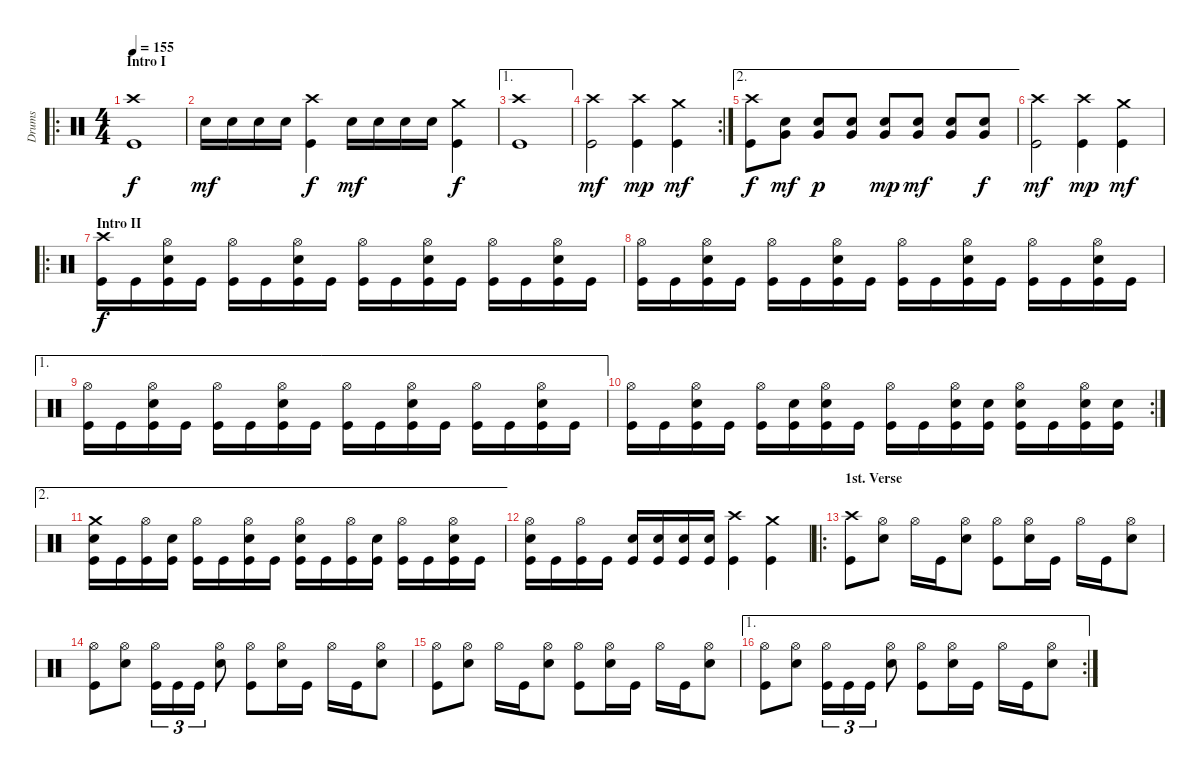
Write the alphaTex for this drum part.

\track ("Drums" "Drums") {instrument percussion}
\staff {score}
\articulation defaults
\ro
\ts (4 4)
\section ("" "Intro I")
\tempo 155
\clef neutral
\ks c
("Crash high (hit)" "Kick (hit)").1{dy f} |
"Snare (hit) 2".16{dy mf} "Snare (hit) 2".16 "Snare (hit) 2".16 "Snare (hit) 2".16 ("Crash high (hit)" "Kick (hit)").4{dy f} "Snare (hit) 2".16{dy mf} "Snare (hit) 2".16 "Snare (hit) 2".16 "Snare (hit) 2".16 ("Crash medium (hit)" "Kick (hit)").4{dy f} |
\ae 1
("Crash high (hit)" "Kick (hit)").1 |
\rc 2
("Crash high (hit)" "Kick (hit)").2{dy mf} ("Crash high (hit)" "Kick (hit)").4{dy mp} ("Crash medium (hit)" "Kick (hit)").4{dy mf} |
\ae 2
("Crash high (hit)" "Kick (hit)").8{dy f} ("Very Low Tom (hit)" "Snare (hit) 2").8{dy mf} ("Very Low Tom (hit)" "Snare (hit) 2").8{dy p} ("Very Low Tom (hit)" "Snare (hit) 2").8 ("Very Low Tom (hit)" "Snare (hit) 2").8{dy mp} ("Very Low Tom (hit)" "Snare (hit) 2").8{dy mf} ("Very Low Tom (hit)" "Snare (hit) 2").8 ("Very Low Tom (hit)" "Snare (hit) 2").8{dy f} |
("Crash high (hit)" "Kick (hit)").2{dy mf} ("Crash high (hit)" "Kick (hit)").4{dy mp} ("Crash medium (hit)" "Kick (hit)").4{dy mf} |
\ro
\section ("" "Intro II")
("Crash high (hit)" "Kick (hit)").16{dy f} "Kick (hit)".16 ("Hi-Hat (open)" "Snare (hit) 2" "Kick (hit)").16 "Kick (hit)".16 ("Hi-Hat (open)" "Kick (hit)").16 "Kick (hit)".16 ("Hi-Hat (open)" "Snare (hit) 2" "Kick (hit)").16 "Kick (hit)".16 ("Hi-Hat (open)" "Kick (hit)").16 "Kick (hit)".16 ("Hi-Hat (open)" "Snare (hit) 2" "Kick (hit)").16 "Kick (hit)".16 ("Hi-Hat (open)" "Kick (hit)").16 "Kick (hit)".16 ("Hi-Hat (open)" "Snare (hit) 2" "Kick (hit)").16 "Kick (hit)".16 |
("Hi-Hat (open)" "Kick (hit)").16 "Kick (hit)".16 ("Hi-Hat (open)" "Snare (hit) 2" "Kick (hit)").16 "Kick (hit)".16 ("Hi-Hat (open)" "Kick (hit)").16 "Kick (hit)".16 ("Hi-Hat (open)" "Snare (hit) 2" "Kick (hit)").16 "Kick (hit)".16 ("Hi-Hat (open)" "Kick (hit)").16 "Kick (hit)".16 ("Hi-Hat (open)" "Snare (hit) 2" "Kick (hit)").16 "Kick (hit)".16 ("Hi-Hat (open)" "Kick (hit)").16 "Kick (hit)".16 ("Hi-Hat (open)" "Snare (hit) 2" "Kick (hit)").16 "Kick (hit)".16 |
\ae 1
("Hi-Hat (open)" "Kick (hit)").16 "Kick (hit)".16 ("Hi-Hat (open)" "Snare (hit) 2" "Kick (hit)").16 "Kick (hit)".16 ("Hi-Hat (open)" "Kick (hit)").16 "Kick (hit)".16 ("Hi-Hat (open)" "Snare (hit) 2" "Kick (hit)").16 "Kick (hit)".16 ("Hi-Hat (open)" "Kick (hit)").16 "Kick (hit)".16 ("Hi-Hat (open)" "Snare (hit) 2" "Kick (hit)").16 "Kick (hit)".16 ("Hi-Hat (open)" "Kick (hit)").16 "Kick (hit)".16 ("Hi-Hat (open)" "Snare (hit) 2" "Kick (hit)").16 "Kick (hit)".16 |
\rc 2
("Hi-Hat (open)" "Kick (hit)").16 "Kick (hit)".16 ("Hi-Hat (open)" "Snare (hit) 2" "Kick (hit)").16 "Kick (hit)".16 ("Hi-Hat (open)" "Kick (hit)").16 ("Snare (hit) 2" "Kick (hit)").16 ("Hi-Hat (open)" "Snare (hit) 2" "Kick (hit)").16 "Kick (hit)".16 ("Hi-Hat (open)" "Kick (hit)").16 "Kick (hit)".16 ("Hi-Hat (open)" "Snare (hit) 2" "Kick (hit)").16 ("Snare (hit) 2" "Kick (hit)").16 ("Hi-Hat (open)" "Snare (hit) 2" "Kick (hit)").16 "Kick (hit)".16 ("Hi-Hat (open)" "Snare (hit) 2" "Kick (hit)").16 ("Snare (hit) 2" "Kick (hit)").16 |
\ae 2
("Crash medium (hit)" "Snare (hit) 2" "Kick (hit)").16 "Kick (hit)".16 ("Hi-Hat (open)" "Kick (hit)").16 ("Snare (hit) 2" "Kick (hit)").16 ("Hi-Hat (open)" "Kick (hit)").16 "Kick (hit)".16 ("Hi-Hat (open)" "Snare (hit) 2" "Kick (hit)").16 "Kick (hit)".16 ("Hi-Hat (open)" "Snare (hit) 2" "Kick (hit)").16 "Kick (hit)".16 ("Hi-Hat (open)" "Kick (hit)").16 ("Snare (hit) 2" "Kick (hit)").16 ("Hi-Hat (open)" "Kick (hit)").16 "Kick (hit)".16 ("Hi-Hat (open)" "Snare (hit) 2" "Kick (hit)").16 "Kick (hit)".16 |
("Hi-Hat (open)" "Snare (hit) 2" "Kick (hit)").16 "Kick (hit)".16 ("Hi-Hat (open)" "Kick (hit)").16 "Kick (hit)".16 ("Snare (hit) 2" "Kick (hit)").16 ("Snare (hit) 2" "Kick (hit)").16 ("Snare (hit) 2" "Kick (hit)").16 ("Snare (hit) 2" "Kick (hit)").16 ("Crash high (hit)" "Kick (hit)").4 ("Crash medium (hit)" "Kick (hit)").4 |
\ro
\section ("" "1st. Verse")
("Crash high (hit)" "Kick (hit)").8 ("Hi-Hat (open)" "Snare (hit) 2").8 "Hi-Hat (open)".16 "Kick (hit)".16 ("Hi-Hat (open)" "Snare (hit) 2").8 ("Hi-Hat (open)" "Kick (hit)").8 ("Hi-Hat (open)" "Snare (hit) 2").16 "Kick (hit)".16 "Hi-Hat (open)".16 "Kick (hit)".16 ("Hi-Hat (open)" "Snare (hit) 2").8 |
("Hi-Hat (open)" "Kick (hit)").8 ("Hi-Hat (open)" "Snare (hit) 2").8 ("Hi-Hat (open)" "Kick (hit)").16{tu (3 2)} "Kick (hit)".16{tu (3 2)} "Kick (hit)".16{tu (3 2)} ("Hi-Hat (open)" "Snare (hit) 2").8 ("Hi-Hat (open)" "Kick (hit)").8 ("Hi-Hat (open)" "Snare (hit) 2").16 "Kick (hit)".16 "Hi-Hat (open)".16 "Kick (hit)".16 ("Hi-Hat (open)" "Snare (hit) 2").8 |
("Hi-Hat (open)" "Kick (hit)").8 ("Hi-Hat (open)" "Snare (hit) 2").8 "Hi-Hat (open)".16 "Kick (hit)".16 ("Hi-Hat (open)" "Snare (hit) 2").8 ("Hi-Hat (open)" "Kick (hit)").8 ("Hi-Hat (open)" "Snare (hit) 2").16 "Kick (hit)".16 "Hi-Hat (open)".16 "Kick (hit)".16 ("Hi-Hat (open)" "Snare (hit) 2").8 |
\ae 1
\rc 2
("Hi-Hat (open)" "Kick (hit)").8 ("Hi-Hat (open)" "Snare (hit) 2").8 ("Hi-Hat (open)" "Kick (hit)").16{tu (3 2)} "Kick (hit)".16{tu (3 2)} "Kick (hit)".16{tu (3 2)} ("Hi-Hat (open)" "Snare (hit) 2").8 ("Hi-Hat (open)" "Kick (hit)").8 ("Hi-Hat (open)" "Snare (hit) 2").16 "Kick (hit)".16 "Hi-Hat (open)".16 "Kick (hit)".16 ("Hi-Hat (open)" "Snare (hit) 2").8
